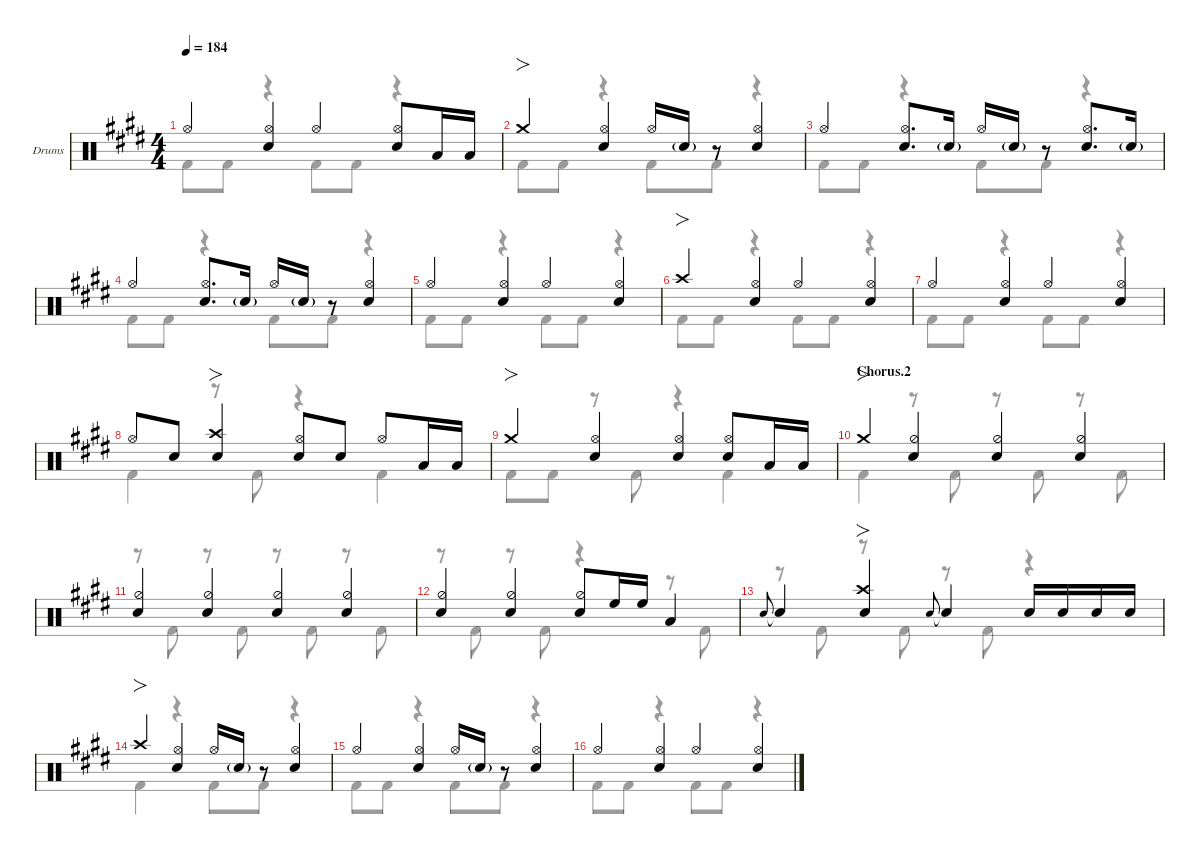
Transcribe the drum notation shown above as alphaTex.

\defaultSystemsLayout 4
\hideDynamics
\bracketExtendMode nobrackets
\firstSystemTrackNameOrientation horizontal
\track ("Drums" "Drums") {defaultSystemsLayout 4 instrument percussion}
\staff {score}
\articulation defaults
\voice
\ts (4 4)
\tempo 184
\clef neutral
\ks e "Hi-Hat (open)"{acc forcenatural}.4{dy f}
("Hi-Hat (open)"{acc forcenatural} "Snare (hit) 2"{acc forcenatural}).4 "Hi-Hat (open)"{acc forcenatural}.4 ("Hi-Hat (open)"{acc forcenatural} "Snare (hit) 2"{acc forcenatural}).8 "Low Tom (hit)"{acc forcenatural}.16 "Low Tom (hit)"{acc forcenatural}.16 |
"Crash medium (hit)"{acc forcenatural}.4{fo} ("Hi-Hat (open)"{acc forcenatural} "Snare (hit) 2"{acc forcenatural}).4 "Hi-Hat (open)"{acc forcenatural}.16 "Snare (hit) 2"{g acc forcenatural}.16{dy mf beam split} r.8 ("Hi-Hat (open)"{acc forcenatural} "Snare (hit) 2"{acc forcenatural}).4{dy f} |
"Hi-Hat (open)"{acc forcenatural}.4 ("Hi-Hat (open)"{acc forcenatural} "Snare (hit) 2"{acc forcenatural}).8{d} "Snare (hit) 2"{g acc forcenatural}.16{dy mf} "Hi-Hat (open)"{acc forcenatural}.16{dy f} "Snare (hit) 2"{g acc forcenatural}.16{dy mf beam split} r.8 ("Hi-Hat (open)"{acc forcenatural} "Snare (hit) 2"{acc forcenatural}).8{d dy f} "Snare (hit) 2"{g acc forcenatural}.16{dy mf} |
"Hi-Hat (open)"{acc forcenatural}.4{dy f} ("Hi-Hat (open)"{acc forcenatural} "Snare (hit) 2"{acc forcenatural}).8{d} "Snare (hit) 2"{g acc forcenatural}.16{dy mf} "Hi-Hat (open)"{acc forcenatural}.16{dy f} "Snare (hit) 2"{g acc forcenatural}.16{dy mf beam split} r.8 ("Hi-Hat (open)"{acc forcenatural} "Snare (hit) 2"{acc forcenatural}).4{dy f} |
"Hi-Hat (open)"{acc forcenatural}.4 ("Hi-Hat (open)"{acc forcenatural} "Snare (hit) 2"{acc forcenatural}).4 "Hi-Hat (open)"{acc forcenatural}.4 ("Hi-Hat (open)"{acc forcenatural} "Snare (hit) 2"{acc forcenatural}).4 |
"Crash high (hit)"{acc forcenatural}.4{fo} ("Hi-Hat (open)"{acc forcenatural} "Snare (hit) 2"{acc forcenatural}).4 "Hi-Hat (open)"{acc forcenatural}.4 ("Hi-Hat (open)"{acc forcenatural} "Snare (hit) 2"{acc forcenatural}).4 |
"Hi-Hat (open)"{acc forcenatural}.4 ("Hi-Hat (open)"{acc forcenatural} "Snare (hit) 2"{acc forcenatural}).4 "Hi-Hat (open)"{acc forcenatural}.4 ("Hi-Hat (open)"{acc forcenatural} "Snare (hit) 2"{acc forcenatural}).4 |
"Hi-Hat (open)"{acc forcenatural}.8 "Snare (hit) 2"{acc forcenatural}.8 ("Snare (hit) 2"{acc forcenatural} "Crash high (hit)"{acc forcenatural}).4{fo} ("Snare (hit) 2"{acc forcenatural} "Hi-Hat (open)"{acc forcenatural}).8 "Snare (hit) 2"{acc forcenatural}.8{beam split} "Hi-Hat (open)"{acc forcenatural}.8 "Low Tom (hit)"{acc forcenatural}.16 "Low Tom (hit)"{acc forcenatural}.16 |
"Crash medium (hit)"{acc forcenatural}.4{fo} ("Snare (hit) 2"{acc forcenatural} "Hi-Hat (open)"{acc forcenatural}).4 ("Hi-Hat (open)"{acc forcenatural} "Snare (hit) 2"{acc forcenatural}).4 ("Hi-Hat (open)"{acc forcenatural} "Snare (hit) 2"{acc forcenatural}).8 "Low Tom (hit)"{acc forcenatural}.16 "Low Tom (hit)"{acc forcenatural}.16 |
\section ("" "Chorus.2")
"Crash medium (hit)"{acc forcenatural}.4{fo} ("Snare (hit) 2"{acc forcenatural} "Hi-Hat (half)"{acc forcenatural}).4 ("Snare (hit) 2"{acc forcenatural} "Hi-Hat (half)"{acc forcenatural}).4 ("Snare (hit) 2"{acc forcenatural} "Hi-Hat (half)"{acc forcenatural}).4 |
("Snare (hit) 2"{acc forcenatural} "Hi-Hat (half)"{acc forcenatural}).4 ("Snare (hit) 2"{acc forcenatural} "Hi-Hat (half)"{acc forcenatural}).4 ("Snare (hit) 2"{acc forcenatural} "Hi-Hat (half)"{acc forcenatural}).4 ("Snare (hit) 2"{acc forcenatural} "Hi-Hat (half)"{acc forcenatural}).4 |
("Snare (hit) 2"{acc forcenatural} "Hi-Hat (half)"{acc forcenatural}).4 ("Snare (hit) 2"{acc forcenatural} "Hi-Hat (half)"{acc forcenatural}).4 ("Snare (hit) 2"{acc forcenatural} "Hi-Hat (half)"{acc forcenatural}).8 "High Floor Tom (hit)"{acc forcenatural}.16 "High Floor Tom (hit)"{acc forcenatural}.16 "Low Tom (hit)"{acc forcenatural}.4 |
"Snare (hit) 2"{acc forcenatural}.8{gr onbeat} "Snare (hit) 2"{t acc forcenatural}.4 ("Snare (hit) 2"{acc forcenatural} "Crash high (hit)"{acc forcenatural}).4{fo} "Snare (hit) 2"{acc forcenatural}.8{gr onbeat} "Snare (hit) 2"{t acc forcenatural}.4 "Snare (hit) 2"{acc forcenatural}.16 "Snare (hit) 2"{acc forcenatural}.16{dy mf} "Snare (hit) 2"{acc forcenatural}.16{dy f} "Snare (hit) 2"{acc forcenatural}.16{dy mf} |
"Crash high (hit)"{acc forcenatural}.4{fo dy f} ("Hi-Hat (open)"{acc forcenatural} "Snare (hit) 2"{acc forcenatural}).4 "Hi-Hat (open)"{acc forcenatural}.16 "Snare (hit) 2"{g acc forcenatural}.16{dy mf beam split} r.8 ("Hi-Hat (open)"{acc forcenatural} "Snare (hit) 2"{acc forcenatural}).4{dy f} |
"Hi-Hat (open)"{acc forcenatural}.4 ("Hi-Hat (open)"{acc forcenatural} "Snare (hit) 2"{acc forcenatural}).4 "Hi-Hat (open)"{acc forcenatural}.16 "Snare (hit) 2"{g acc forcenatural}.16{dy mf beam split} r.8 ("Hi-Hat (open)"{acc forcenatural} "Snare (hit) 2"{acc forcenatural}).4{dy f} |
"Hi-Hat (open)"{acc forcenatural}.4 ("Hi-Hat (open)"{acc forcenatural} "Snare (hit) 2"{acc forcenatural}).4 "Hi-Hat (open)"{acc forcenatural}.4 ("Hi-Hat (open)"{acc forcenatural} "Snare (hit) 2"{acc forcenatural}).4
\voice
\clef neutral
\ottava regular
\simile none
\ks e "Kick (hit) 2"{acc forcenatural}.8{dy f} "Kick (hit) 2"{acc forcenatural}.8
r.4 "Kick (hit) 2"{acc forcenatural}.8 "Kick (hit) 2"{acc forcenatural}.8 r.4 |
"Kick (hit) 2"{acc forcenatural}.8 "Kick (hit) 2"{acc forcenatural}.8 r.4 "Kick (hit) 2"{acc forcenatural}.8 "Kick (hit) 2"{acc forcenatural}.8 r.4 |
"Kick (hit) 2"{acc forcenatural}.8 "Kick (hit) 2"{acc forcenatural}.8 r.4 "Kick (hit) 2"{acc forcenatural}.8 "Kick (hit) 2"{acc forcenatural}.8 r.4 |
"Kick (hit) 2"{acc forcenatural}.8 "Kick (hit) 2"{acc forcenatural}.8 r.4 "Kick (hit) 2"{acc forcenatural}.8 "Kick (hit) 2"{acc forcenatural}.8 r.4 |
"Kick (hit) 2"{acc forcenatural}.8 "Kick (hit) 2"{acc forcenatural}.8 r.4 "Kick (hit) 2"{acc forcenatural}.8 "Kick (hit) 2"{acc forcenatural}.8 r.4 |
"Kick (hit) 2"{acc forcenatural}.8 "Kick (hit) 2"{acc forcenatural}.8 r.4 "Kick (hit) 2"{acc forcenatural}.8 "Kick (hit) 2"{acc forcenatural}.8 r.4 |
"Kick (hit) 2"{acc forcenatural}.8 "Kick (hit) 2"{acc forcenatural}.8 r.4 "Kick (hit) 2"{acc forcenatural}.8 "Kick (hit) 2"{acc forcenatural}.8 r.4 |
"Kick (hit) 2"{acc forcenatural}.4 r.8 "Kick (hit) 2"{acc forcenatural}.8 r.4 "Kick (hit) 2"{acc forcenatural}.4 |
"Kick (hit) 2"{acc forcenatural}.8 "Kick (hit) 2"{acc forcenatural}.8 r.8 "Kick (hit) 2"{acc forcenatural}.8 r.4 "Kick (hit) 2"{acc forcenatural}.4 |
"Kick (hit) 2"{acc forcenatural}.4 r.8 "Kick (hit) 2"{acc forcenatural}.8 r.8 "Kick (hit) 2"{acc forcenatural}.8 r.8 "Kick (hit) 2"{acc forcenatural}.8 |
r.8 "Kick (hit) 2"{acc forcenatural}.8 r.8 "Kick (hit) 2"{acc forcenatural}.8 r.8 "Kick (hit) 2"{acc forcenatural}.8 r.8 "Kick (hit) 2"{acc forcenatural}.8 |
r.8 "Kick (hit) 2"{acc forcenatural}.8 r.8 "Kick (hit) 2"{acc forcenatural}.8 r.4 r.8 "Kick (hit) 2"{acc forcenatural}.8 |
r.8 "Kick (hit) 2"{acc forcenatural}.8 r.8 "Kick (hit) 2"{acc forcenatural}.8 r.8 "Kick (hit) 2"{acc forcenatural}.8 r.4 |
"Kick (hit) 2"{acc forcenatural}.4 r.4 "Kick (hit) 2"{acc forcenatural}.8 "Kick (hit) 2"{acc forcenatural}.8 r.4 |
"Kick (hit) 2"{acc forcenatural}.8 "Kick (hit) 2"{acc forcenatural}.8 r.4 "Kick (hit) 2"{acc forcenatural}.8 "Kick (hit) 2"{acc forcenatural}.8 r.4 |
"Kick (hit) 2"{acc forcenatural}.8 "Kick (hit) 2"{acc forcenatural}.8 r.4 "Kick (hit) 2"{acc forcenatural}.8 "Kick (hit) 2"{acc forcenatural}.8 r.4
